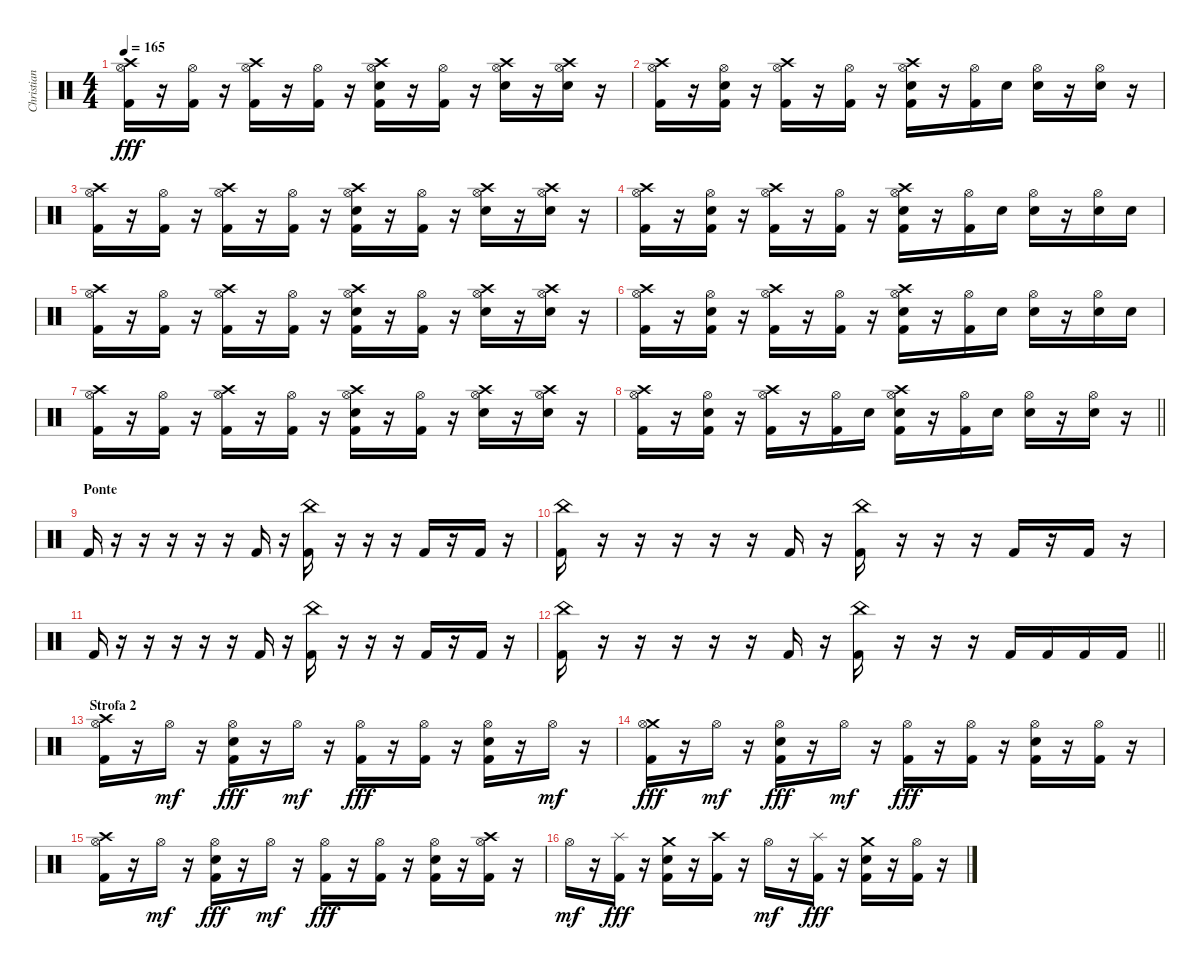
\track ("Christian Coma Mora (CC)" "Christian ") {instrument percussion}
\staff {score}
\articulation defaults
\ts (4 4)
\tempo 165
\clef neutral
\ks c
("Crash high (hit)" "Hi-Hat (open)" "Kick (hit) 2").16{dy fff} r.16 ("Hi-Hat (open)" "Kick (hit) 2").16 r.16 ("Crash high (hit)" "Hi-Hat (open)" "Kick (hit) 2").16 r.16 ("Hi-Hat (open)" "Kick (hit) 2").16 r.16 ("Crash high (hit)" "Hi-Hat (open)" "Snare (hit) 2" "Kick (hit) 2").16 r.16 ("Hi-Hat (open)" "Kick (hit) 2").16 r.16 ("Crash high (hit)" "Hi-Hat (open)" "Snare (hit) 2").16 r.16 ("Crash high (hit)" "Hi-Hat (open)" "Snare (hit) 2").16 r.16 |
("Crash high (hit)" "Hi-Hat (open)" "Kick (hit) 2").16 r.16 ("Hi-Hat (open)" "Snare (hit) 2" "Kick (hit) 2").16 r.16 ("Crash high (hit)" "Hi-Hat (open)" "Kick (hit) 2").16 r.16 ("Hi-Hat (open)" "Kick (hit) 2").16 r.16 ("Crash high (hit)" "Hi-Hat (open)" "Snare (hit) 2" "Kick (hit) 2").16 r.16 ("Hi-Hat (open)" "Kick (hit) 2").16 "Snare (hit) 2".16 ("Hi-Hat (open)" "Snare (hit) 2").16 r.16 ("Hi-Hat (open)" "Snare (hit) 2").16 r.16 |
("Crash high (hit)" "Hi-Hat (open)" "Kick (hit) 2").16 r.16 ("Hi-Hat (open)" "Kick (hit) 2").16 r.16 ("Crash high (hit)" "Hi-Hat (open)" "Kick (hit) 2").16 r.16 ("Hi-Hat (open)" "Kick (hit) 2").16 r.16 ("Crash high (hit)" "Hi-Hat (open)" "Snare (hit) 2" "Kick (hit) 2").16 r.16 ("Hi-Hat (open)" "Kick (hit) 2").16 r.16 ("Crash high (hit)" "Hi-Hat (open)" "Snare (hit) 2").16 r.16 ("Crash high (hit)" "Hi-Hat (open)" "Snare (hit) 2").16 r.16 |
("Crash high (hit)" "Hi-Hat (open)" "Kick (hit) 2").16 r.16 ("Hi-Hat (open)" "Snare (hit) 2" "Kick (hit) 2").16 r.16 ("Crash high (hit)" "Hi-Hat (open)" "Kick (hit) 2").16 r.16 ("Hi-Hat (open)" "Kick (hit) 2").16 r.16 ("Crash high (hit)" "Hi-Hat (open)" "Snare (hit) 2" "Kick (hit) 2").16 r.16 ("Hi-Hat (open)" "Kick (hit) 2").16 "Snare (hit) 2".16 ("Hi-Hat (open)" "Snare (hit) 2").16 r.16 ("Hi-Hat (open)" "Snare (hit) 2").16 "Snare (hit) 2".16 |
("Crash high (hit)" "Hi-Hat (open)" "Kick (hit) 2").16 r.16 ("Hi-Hat (open)" "Kick (hit) 2").16 r.16 ("Crash high (hit)" "Hi-Hat (open)" "Kick (hit) 2").16 r.16 ("Hi-Hat (open)" "Kick (hit) 2").16 r.16 ("Crash high (hit)" "Hi-Hat (open)" "Snare (hit) 2" "Kick (hit) 2").16 r.16 ("Hi-Hat (open)" "Kick (hit) 2").16 r.16 ("Crash high (hit)" "Hi-Hat (open)" "Snare (hit) 2").16 r.16 ("Crash high (hit)" "Hi-Hat (open)" "Snare (hit) 2").16 r.16 |
("Crash high (hit)" "Hi-Hat (open)" "Kick (hit) 2").16 r.16 ("Hi-Hat (open)" "Snare (hit) 2" "Kick (hit) 2").16 r.16 ("Crash high (hit)" "Hi-Hat (open)" "Kick (hit) 2").16 r.16 ("Hi-Hat (open)" "Kick (hit) 2").16 r.16 ("Crash high (hit)" "Hi-Hat (open)" "Snare (hit) 2" "Kick (hit) 2").16 r.16 ("Hi-Hat (open)" "Kick (hit) 2").16 "Snare (hit) 2".16 ("Hi-Hat (open)" "Snare (hit) 2").16 r.16 ("Hi-Hat (open)" "Snare (hit) 2").16 "Snare (hit) 2".16 |
("Crash high (hit)" "Hi-Hat (open)" "Kick (hit) 2").16 r.16 ("Hi-Hat (open)" "Kick (hit) 2").16 r.16 ("Crash high (hit)" "Hi-Hat (open)" "Kick (hit) 2").16 r.16 ("Hi-Hat (open)" "Kick (hit) 2").16 r.16 ("Crash high (hit)" "Hi-Hat (open)" "Snare (hit) 2" "Kick (hit) 2").16 r.16 ("Hi-Hat (open)" "Kick (hit) 2").16 r.16 ("Crash high (hit)" "Hi-Hat (open)" "Snare (hit) 2").16 r.16 ("Crash high (hit)" "Hi-Hat (open)" "Snare (hit) 2").16 r.16 |
\barLineRight lightlight
("Crash high (hit)" "Hi-Hat (open)" "Kick (hit) 2").16 r.16 ("Hi-Hat (open)" "Snare (hit) 2" "Kick (hit) 2").16 r.16 ("Crash high (hit)" "Hi-Hat (open)" "Kick (hit) 2").16 r.16 ("Hi-Hat (open)" "Kick (hit) 2").16 "Snare (hit) 2".16 ("Crash high (hit)" "Hi-Hat (open)" "Snare (hit) 2" "Kick (hit) 2").16 r.16 ("Hi-Hat (open)" "Kick (hit) 2").16 "Snare (hit) 2".16 ("Hi-Hat (open)" "Snare (hit) 2").16 r.16 ("Hi-Hat (open)" "Snare (hit) 2").16 r.16 |
\section ("" "Ponte")
"Kick (hit) 2".16 r.16 r.16 r.16 r.16 r.16 "Kick (hit) 2".16 r.16 ("China (hit)" "Kick (hit) 2").16 r.16 r.16 r.16 "Kick (hit) 2".16 r.16 "Kick (hit) 2".16 r.16 |
("China (hit)" "Kick (hit) 2").16 r.16 r.16 r.16 r.16 r.16 "Kick (hit) 2".16 r.16 ("China (hit)" "Kick (hit) 2").16 r.16 r.16 r.16 "Kick (hit) 2".16 r.16 "Kick (hit) 2".16 r.16 |
"Kick (hit) 2".16 r.16 r.16 r.16 r.16 r.16 "Kick (hit) 2".16 r.16 ("China (hit)" "Kick (hit) 2").16 r.16 r.16 r.16 "Kick (hit) 2".16 r.16 "Kick (hit) 2".16 r.16 |
\barLineRight lightlight
("China (hit)" "Kick (hit) 2").16 r.16 r.16 r.16 r.16 r.16 "Kick (hit) 2".16 r.16 ("China (hit)" "Kick (hit) 2").16 r.16 r.16 r.16 "Kick (hit) 2".16 "Kick (hit) 2".16 "Kick (hit) 2".16 "Kick (hit) 2".16 |
\section ("" "Strofa 2")
("Crash high (hit)" "Hi-Hat (open)" "Kick (hit) 2").16 r.16 "Hi-Hat (open)".16{dy mf} r.16 ("Hi-Hat (open)" "Snare (hit) 2" "Kick (hit) 2").16{dy fff} r.16 "Hi-Hat (open)".16{dy mf} r.16 ("Hi-Hat (open)" "Kick (hit) 2").16{dy fff} r.16 ("Hi-Hat (open)" "Kick (hit) 2").16 r.16 ("Hi-Hat (open)" "Snare (hit) 2" "Kick (hit) 2").16 r.16 "Hi-Hat (open)".16{dy mf} r.16 |
("Crash medium (hit)" "Hi-Hat (open)" "Kick (hit) 2").16{dy fff} r.16 "Hi-Hat (open)".16{dy mf} r.16 ("Hi-Hat (open)" "Snare (hit) 2" "Kick (hit) 2").16{dy fff} r.16 "Hi-Hat (open)".16{dy mf} r.16 ("Hi-Hat (open)" "Kick (hit) 2").16{dy fff} r.16 ("Hi-Hat (open)" "Kick (hit) 2").16 r.16 ("Hi-Hat (open)" "Snare (hit) 2" "Kick (hit) 2").16 r.16 ("Hi-Hat (open)" "Kick (hit) 2").16 r.16 |
("Crash high (hit)" "Hi-Hat (open)" "Kick (hit) 2").16 r.16 "Hi-Hat (open)".16{dy mf} r.16 ("Hi-Hat (open)" "Snare (hit) 2" "Kick (hit) 2").16{dy fff} r.16 "Hi-Hat (open)".16{dy mf} r.16 ("Hi-Hat (open)" "Kick (hit) 2").16{dy fff} r.16 ("Hi-Hat (open)" "Kick (hit) 2").16 r.16 ("Hi-Hat (open)" "Snare (hit) 2" "Kick (hit) 2").16 r.16 ("Crash high (hit)" "Hi-Hat (open)" "Kick (hit) 2").16 r.16 |
"Hi-Hat (open)".16{dy mf} r.16 ("Splash (hit)" "Kick (hit) 2").16{dy fff} r.16 ("Crash medium (hit)" "Snare (hit) 2" "Kick (hit) 2").16 r.16 ("Crash high (hit)" "Kick (hit) 2").16 r.16 "Hi-Hat (open)".16{dy mf} r.16 ("Splash (hit)" "Kick (hit) 2").16{dy fff} r.16 ("Crash medium (hit)" "Snare (hit) 2" "Kick (hit) 2").16 r.16 ("Hi-Hat (open)" "Kick (hit) 2").16 r.16
